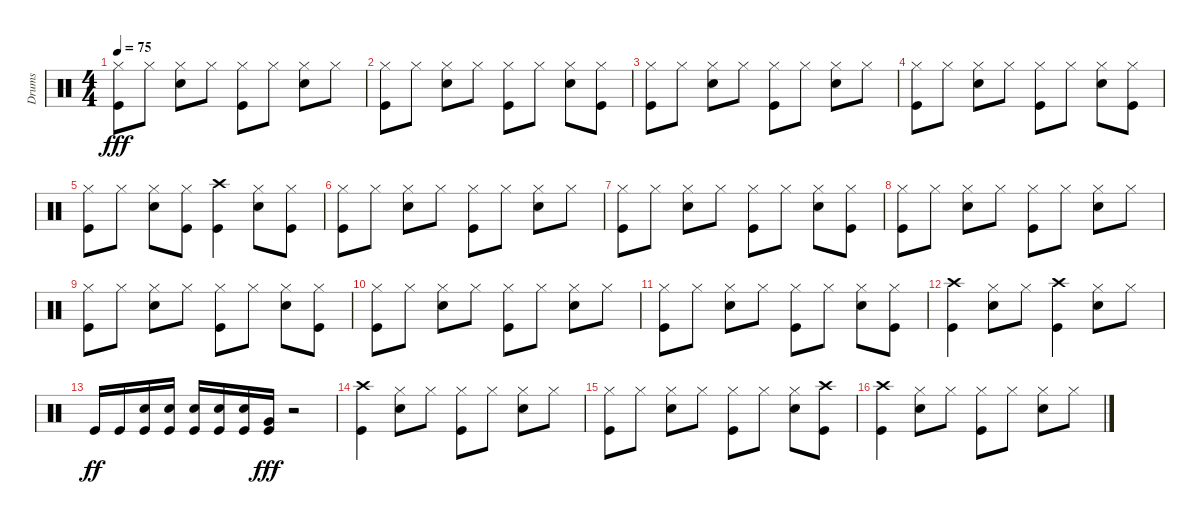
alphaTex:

\track ("Drums" "Drums") {instrument percussion}
\staff {score}
\articulation defaults
\ts (4 4)
\tempo 75
\clef neutral
\ks c
("Hi-Hat (closed)" "Kick (hit)").8{dy fff} "Hi-Hat (closed)".8 ("Hi-Hat (closed)" "Snare (hit) 2").8 "Hi-Hat (closed)".8 ("Hi-Hat (closed)" "Kick (hit)").8 "Hi-Hat (closed)".8 ("Hi-Hat (closed)" "Snare (hit) 2").8 "Hi-Hat (closed)".8 |
("Hi-Hat (closed)" "Kick (hit)").8 "Hi-Hat (closed)".8 ("Hi-Hat (closed)" "Snare (hit) 2").8 "Hi-Hat (closed)".8 ("Hi-Hat (closed)" "Kick (hit)").8 "Hi-Hat (closed)".8 ("Hi-Hat (closed)" "Snare (hit) 2").8 ("Hi-Hat (closed)" "Kick (hit)").8 |
("Hi-Hat (closed)" "Kick (hit)").8 "Hi-Hat (closed)".8 ("Hi-Hat (closed)" "Snare (hit) 2").8 "Hi-Hat (closed)".8 ("Hi-Hat (closed)" "Kick (hit)").8 "Hi-Hat (closed)".8 ("Hi-Hat (closed)" "Snare (hit) 2").8 "Hi-Hat (closed)".8 |
("Hi-Hat (closed)" "Kick (hit)").8 "Hi-Hat (closed)".8 ("Hi-Hat (closed)" "Snare (hit) 2").8 "Hi-Hat (closed)".8 ("Hi-Hat (closed)" "Kick (hit)").8 "Hi-Hat (closed)".8 ("Hi-Hat (closed)" "Snare (hit) 2").8 ("Hi-Hat (closed)" "Kick (hit)").8 |
("Hi-Hat (closed)" "Kick (hit)").8 "Hi-Hat (closed)".8 ("Hi-Hat (closed)" "Snare (hit) 2").8 ("Hi-Hat (closed)" "Kick (hit)").8 ("Crash high (hit)" "Kick (hit)").4 ("Hi-Hat (closed)" "Snare (hit) 2").8 ("Hi-Hat (closed)" "Kick (hit)").8 |
("Hi-Hat (closed)" "Kick (hit)").8 "Hi-Hat (closed)".8 ("Hi-Hat (closed)" "Snare (hit) 2").8 "Hi-Hat (closed)".8 ("Hi-Hat (closed)" "Kick (hit)").8 "Hi-Hat (closed)".8 ("Hi-Hat (closed)" "Snare (hit) 2").8 "Hi-Hat (closed)".8 |
("Hi-Hat (closed)" "Kick (hit)").8 "Hi-Hat (closed)".8 ("Hi-Hat (closed)" "Snare (hit) 2").8 "Hi-Hat (closed)".8 ("Hi-Hat (closed)" "Kick (hit)").8 "Hi-Hat (closed)".8 ("Hi-Hat (closed)" "Snare (hit) 2").8 ("Hi-Hat (closed)" "Kick (hit)").8 |
("Hi-Hat (closed)" "Kick (hit)").8 "Hi-Hat (closed)".8 ("Hi-Hat (closed)" "Snare (hit) 2").8 "Hi-Hat (closed)".8 ("Hi-Hat (closed)" "Kick (hit)").8 "Hi-Hat (closed)".8 ("Hi-Hat (closed)" "Snare (hit) 2").8 "Hi-Hat (closed)".8 |
("Hi-Hat (closed)" "Kick (hit)").8 "Hi-Hat (closed)".8 ("Hi-Hat (closed)" "Snare (hit) 2").8 "Hi-Hat (closed)".8 ("Hi-Hat (closed)" "Kick (hit)").8 "Hi-Hat (closed)".8 ("Hi-Hat (closed)" "Snare (hit) 2").8 ("Hi-Hat (closed)" "Kick (hit)").8 |
("Hi-Hat (closed)" "Kick (hit)").8 "Hi-Hat (closed)".8 ("Hi-Hat (closed)" "Snare (hit) 2").8 "Hi-Hat (closed)".8 ("Hi-Hat (closed)" "Kick (hit)").8 "Hi-Hat (closed)".8 ("Hi-Hat (closed)" "Snare (hit) 2").8 "Hi-Hat (closed)".8 |
("Hi-Hat (closed)" "Kick (hit)").8 "Hi-Hat (closed)".8 ("Hi-Hat (closed)" "Snare (hit) 2").8 "Hi-Hat (closed)".8 ("Hi-Hat (closed)" "Kick (hit)").8 "Hi-Hat (closed)".8 ("Hi-Hat (closed)" "Snare (hit) 2").8 ("Hi-Hat (closed)" "Kick (hit)").8 |
("Crash high (hit)" "Kick (hit)").4 ("Hi-Hat (closed)" "Snare (hit) 2").8 "Hi-Hat (closed)".8 ("Crash high (hit)" "Kick (hit)").4 ("Hi-Hat (closed)" "Snare (hit) 2").8 "Hi-Hat (closed)".8 |
"Kick (hit)".16{dy ff} "Kick (hit)".16 ("Snare (hit) 2" "Kick (hit)").16 ("Snare (hit) 2" "Kick (hit)").16 ("Snare (hit) 2" "Kick (hit)").16 ("Snare (hit) 2" "Kick (hit)").16 ("Snare (hit) 2" "Kick (hit)").16 ("Very Low Tom (hit)" "Kick (hit)").16{dy fff} r.2 |
("Crash high (hit)" "Kick (hit)").4 ("Hi-Hat (closed)" "Snare (hit) 2").8 "Hi-Hat (closed)".8 ("Hi-Hat (closed)" "Kick (hit)").8 "Hi-Hat (closed)".8 ("Hi-Hat (closed)" "Snare (hit) 2").8 "Hi-Hat (closed)".8 |
("Hi-Hat (closed)" "Kick (hit)").8 "Hi-Hat (closed)".8 ("Hi-Hat (closed)" "Snare (hit) 2").8 "Hi-Hat (closed)".8 ("Hi-Hat (closed)" "Kick (hit)").8 "Hi-Hat (closed)".8 ("Hi-Hat (closed)" "Snare (hit) 2").8 ("Crash high (hit)" "Kick (hit)").8 |
("Crash high (hit)" "Kick (hit)").4 ("Hi-Hat (closed)" "Snare (hit) 2").8 "Hi-Hat (closed)".8 ("Hi-Hat (closed)" "Kick (hit)").8 "Hi-Hat (closed)".8 ("Hi-Hat (closed)" "Snare (hit) 2").8 "Hi-Hat (closed)".8
